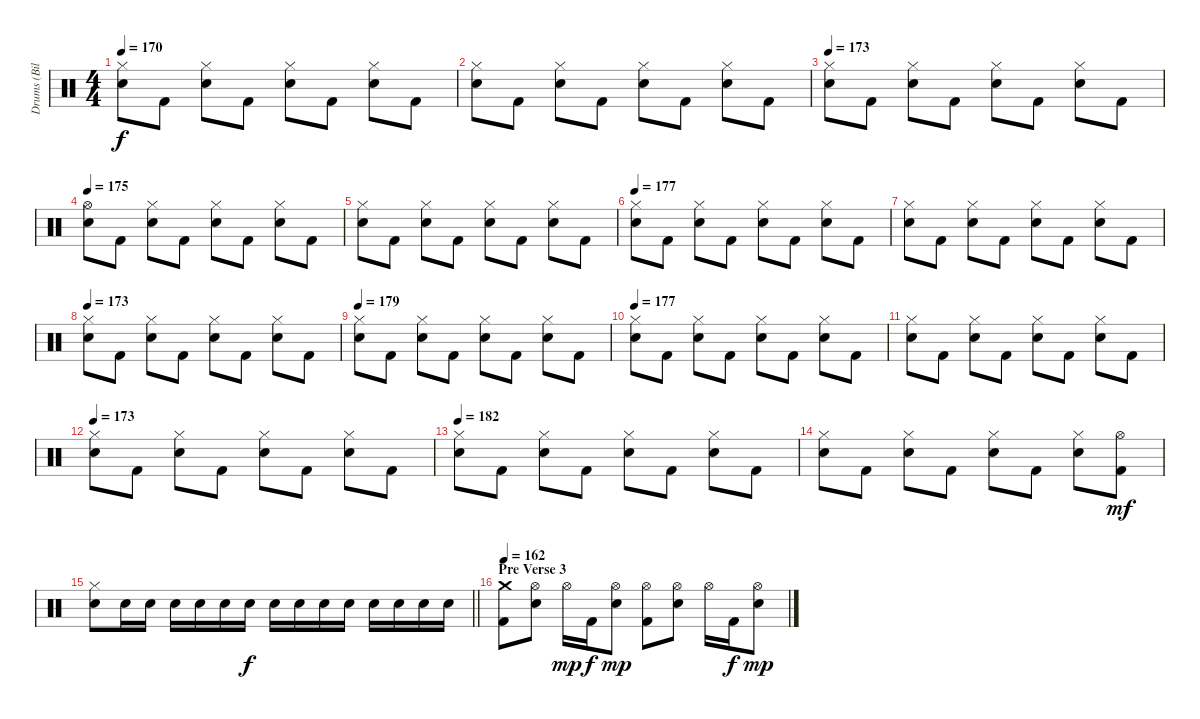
\track ("Drums (Bill Andrews)" "Drums (Bil") {instrument percussion}
\staff
\articulation defaults
\ts (4 4)
\tempo 170
\clef neutral
\ks c
("Hi-Hat (closed)" "Electric Snare (hit)").8{dy f} "Kick (hit) 2".8 ("Hi-Hat (closed)" "Electric Snare (hit)").8 "Kick (hit) 2".8 ("Hi-Hat (closed)" "Electric Snare (hit)").8 "Kick (hit) 2".8 ("Hi-Hat (closed)" "Electric Snare (hit)").8 "Kick (hit) 2".8 |
("Hi-Hat (closed)" "Electric Snare (hit)").8 "Kick (hit) 2".8 ("Hi-Hat (closed)" "Electric Snare (hit)").8 "Kick (hit) 2".8 ("Hi-Hat (closed)" "Electric Snare (hit)").8 "Kick (hit) 2".8 ("Hi-Hat (closed)" "Electric Snare (hit)").8 "Kick (hit) 2".8 |
\tempo 173
("Hi-Hat (closed)" "Electric Snare (hit)").8 "Kick (hit) 2".8 ("Hi-Hat (closed)" "Electric Snare (hit)").8 "Kick (hit) 2".8 ("Hi-Hat (closed)" "Electric Snare (hit)").8 "Kick (hit) 2".8 ("Hi-Hat (closed)" "Electric Snare (hit)").8 "Kick (hit) 2".8 |
\tempo 175
("Hi-Hat (open)" "Electric Snare (hit)").8 "Kick (hit) 2".8 ("Hi-Hat (closed)" "Electric Snare (hit)").8 "Kick (hit) 2".8 ("Hi-Hat (closed)" "Electric Snare (hit)").8 "Kick (hit) 2".8 ("Hi-Hat (closed)" "Electric Snare (hit)").8 "Kick (hit) 2".8 |
("Hi-Hat (closed)" "Electric Snare (hit)").8 "Kick (hit) 2".8 ("Hi-Hat (closed)" "Electric Snare (hit)").8 "Kick (hit) 2".8 ("Hi-Hat (closed)" "Electric Snare (hit)").8 "Kick (hit) 2".8 ("Hi-Hat (closed)" "Electric Snare (hit)").8 "Kick (hit) 2".8 |
\tempo 175
\tempo 177
("Hi-Hat (closed)" "Electric Snare (hit)").8 "Kick (hit) 2".8 ("Hi-Hat (closed)" "Electric Snare (hit)").8 "Kick (hit) 2".8 ("Hi-Hat (closed)" "Electric Snare (hit)").8 "Kick (hit) 2".8 ("Hi-Hat (closed)" "Electric Snare (hit)").8 "Kick (hit) 2".8 |
("Hi-Hat (closed)" "Electric Snare (hit)").8 "Kick (hit) 2".8 ("Hi-Hat (closed)" "Electric Snare (hit)").8 "Kick (hit) 2".8 ("Hi-Hat (closed)" "Electric Snare (hit)").8 "Kick (hit) 2".8 ("Hi-Hat (closed)" "Electric Snare (hit)").8 "Kick (hit) 2".8 |
\tempo 173
("Hi-Hat (closed)" "Electric Snare (hit)").8 "Kick (hit) 2".8 ("Hi-Hat (closed)" "Electric Snare (hit)").8 "Kick (hit) 2".8 ("Hi-Hat (closed)" "Electric Snare (hit)").8 "Kick (hit) 2".8 ("Hi-Hat (closed)" "Electric Snare (hit)").8 "Kick (hit) 2".8 |
\tempo 179
("Hi-Hat (closed)" "Electric Snare (hit)").8 "Kick (hit) 2".8 ("Hi-Hat (closed)" "Electric Snare (hit)").8 "Kick (hit) 2".8 ("Hi-Hat (closed)" "Electric Snare (hit)").8 "Kick (hit) 2".8 ("Hi-Hat (closed)" "Electric Snare (hit)").8 "Kick (hit) 2".8 |
\tempo 177
("Hi-Hat (closed)" "Electric Snare (hit)").8 "Kick (hit) 2".8 ("Hi-Hat (closed)" "Electric Snare (hit)").8 "Kick (hit) 2".8 ("Hi-Hat (closed)" "Electric Snare (hit)").8 "Kick (hit) 2".8 ("Hi-Hat (closed)" "Electric Snare (hit)").8 "Kick (hit) 2".8 |
("Hi-Hat (closed)" "Electric Snare (hit)").8 "Kick (hit) 2".8 ("Hi-Hat (closed)" "Electric Snare (hit)").8 "Kick (hit) 2".8 ("Hi-Hat (closed)" "Electric Snare (hit)").8 "Kick (hit) 2".8 ("Hi-Hat (closed)" "Electric Snare (hit)").8 "Kick (hit) 2".8 |
\tempo 173
("Hi-Hat (closed)" "Electric Snare (hit)").8 "Kick (hit) 2".8 ("Hi-Hat (closed)" "Electric Snare (hit)").8 "Kick (hit) 2".8 ("Hi-Hat (closed)" "Electric Snare (hit)").8 "Kick (hit) 2".8 ("Hi-Hat (closed)" "Electric Snare (hit)").8 "Kick (hit) 2".8 |
\tempo 182
("Hi-Hat (closed)" "Electric Snare (hit)").8 "Kick (hit) 2".8 ("Hi-Hat (closed)" "Electric Snare (hit)").8 "Kick (hit) 2".8 ("Hi-Hat (closed)" "Electric Snare (hit)").8 "Kick (hit) 2".8 ("Hi-Hat (closed)" "Electric Snare (hit)").8 "Kick (hit) 2".8 |
("Hi-Hat (closed)" "Electric Snare (hit)").8 "Kick (hit) 2".8 ("Hi-Hat (closed)" "Electric Snare (hit)").8 "Kick (hit) 2".8 ("Hi-Hat (closed)" "Electric Snare (hit)").8 "Kick (hit) 2".8 ("Hi-Hat (closed)" "Electric Snare (hit)").8 ("Hi-Hat (open)" "Kick (hit) 2").8{dy mf} |
\barLineRight lightlight
("Hi-Hat (closed)" "Electric Snare (hit)").8 "Electric Snare (hit)".16 "Electric Snare (hit)".16 "Electric Snare (hit)".16 "Electric Snare (hit)".16 "Electric Snare (hit)".16 "Electric Snare (hit)".16{dy f} "Electric Snare (hit)".16 "Electric Snare (hit)".16 "Electric Snare (hit)".16 "Electric Snare (hit)".16 "Electric Snare (hit)".16 "Electric Snare (hit)".16 "Electric Snare (hit)".16 "Electric Snare (hit)".16 |
\section ("" "Pre Verse 3")
\tempo 162
("Crash medium (hit)" "Kick (hit) 2").8 ("Hi-Hat (open)" "Electric Snare (hit)").8 "Hi-Hat (open)".16{dy mp} "Kick (hit) 2".16{dy f} ("Hi-Hat (open)" "Electric Snare (hit)").8{dy mp} ("Hi-Hat (open)" "Kick (hit) 2").8 ("Hi-Hat (open)" "Electric Snare (hit)").8 "Hi-Hat (open)".16 "Kick (hit) 2".16{dy f} ("Hi-Hat (open)" "Electric Snare (hit)").8{dy mp}
